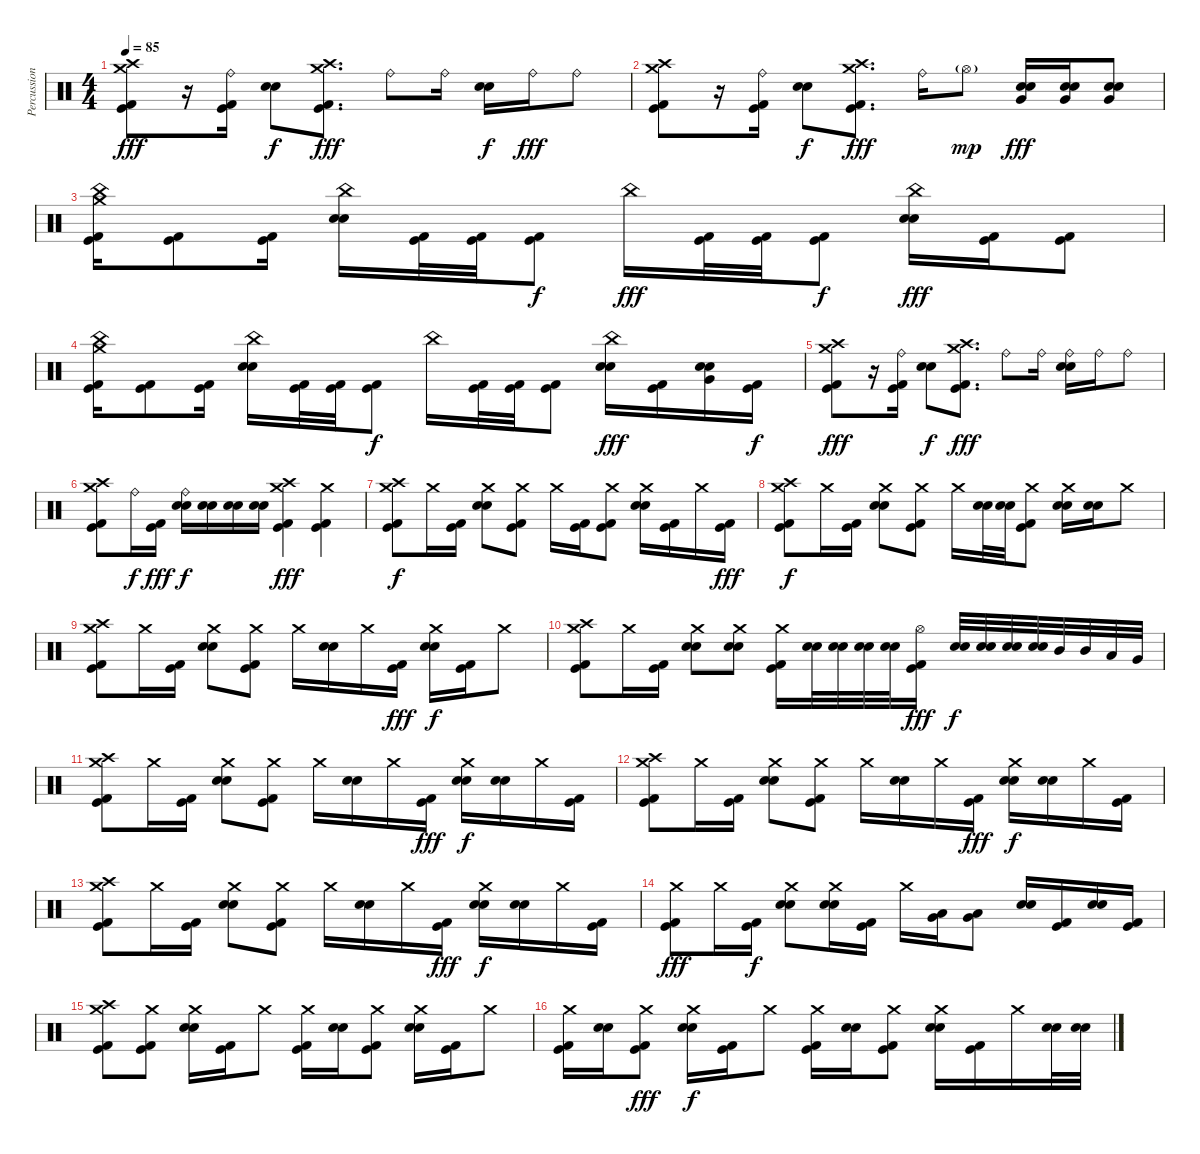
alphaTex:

\track ("Percussion" "Percussion") {instrument percussion}
\staff {score}
\articulation defaults
\ts (4 4)
\tempo 85
\clef neutral
\ks c
("Crash high (hit)" "Crash medium (hit)" "Kick (hit)" "Kick (hit) 2").8{dy fff} r.16 ("Ride (bell)" "Kick (hit)" "Kick (hit) 2").16 ("Electric Snare (hit)" "Snare (hit) 2").8{dy f} ("Crash medium (hit)" "Crash high (hit)" "Kick (hit)" "Kick (hit) 2").8{d dy fff} "Ride (bell)".8 "Ride (bell)".16 ("Electric Snare (hit)" "Snare (hit) 2").16{dy f} "Ride (bell)".16{dy fff} "Ride (bell)".8 |
("Crash high (hit)" "Crash medium (hit)" "Kick (hit)" "Kick (hit) 2").8 r.16 ("Ride (bell)" "Kick (hit)" "Kick (hit) 2").16 ("Electric Snare (hit)" "Snare (hit) 2").8{dy f} ("Crash medium (hit)" "Crash high (hit)" "Kick (hit)" "Kick (hit) 2").8{d dy fff} "Ride (bell)".16 "Hi-Hat (open)"{g}.8{dy mp} ("Electric Snare (hit)" "Snare (hit) 2" "Very Low Tom (hit)").16{dy fff} ("Electric Snare (hit)" "Snare (hit) 2" "Very Low Tom (hit)").16 ("Electric Snare (hit)" "Snare (hit) 2" "Very Low Tom (hit)").8 |
("Crash medium (hit)" "China (hit)" "Kick (hit)" "Kick (hit) 2").16 ("Kick (hit)" "Kick (hit) 2").8 ("Kick (hit)" "Kick (hit) 2").16 ("China (hit)" "Electric Snare (hit)" "Snare (hit) 2").16 ("Kick (hit)" "Kick (hit) 2").32 ("Kick (hit)" "Kick (hit) 2").32 ("Kick (hit)" "Kick (hit) 2").8{dy f} "China (hit)".16{dy fff} ("Kick (hit)" "Kick (hit) 2").32 ("Kick (hit)" "Kick (hit) 2").32 ("Kick (hit)" "Kick (hit) 2").8{dy f} ("China (hit)" "Electric Snare (hit)" "Snare (hit) 2").16{dy fff} ("Kick (hit)" "Kick (hit) 2").16 ("Kick (hit)" "Kick (hit) 2").8 |
("Crash medium (hit)" "China (hit)" "Kick (hit)" "Kick (hit) 2").16 ("Kick (hit)" "Kick (hit) 2").8 ("Kick (hit)" "Kick (hit) 2").16 ("China (hit)" "Electric Snare (hit)" "Snare (hit) 2").16 ("Kick (hit)" "Kick (hit) 2").32 ("Kick (hit)" "Kick (hit) 2").32 ("Kick (hit)" "Kick (hit) 2").8{dy f} "China (hit)".16 ("Kick (hit)" "Kick (hit) 2").32 ("Kick (hit)" "Kick (hit) 2").32 ("Kick (hit)" "Kick (hit) 2").8 ("China (hit)" "Electric Snare (hit)" "Snare (hit) 2").16{dy fff} ("Kick (hit)" "Kick (hit) 2").16 ("Very Low Tom (hit)" "Electric Snare (hit)" "Snare (hit) 2").16 ("Kick (hit)" "Kick (hit) 2").16{dy f} |
("Crash high (hit)" "Crash medium (hit)" "Kick (hit)" "Kick (hit) 2").8{dy fff} r.16 ("Ride (bell)" "Kick (hit)" "Kick (hit) 2").16 ("Electric Snare (hit)" "Snare (hit) 2").8{dy f} ("Crash medium (hit)" "Crash high (hit)" "Kick (hit)" "Kick (hit) 2").8{d dy fff} "Ride (bell)".8 "Ride (bell)".16 ("Ride (bell)" "Electric Snare (hit)" "Snare (hit) 2").16 "Ride (bell)".16 "Ride (bell)".8 |
("Crash high (hit)" "Crash medium (hit)" "Kick (hit)" "Kick (hit) 2").8 "Ride (bell)".16{dy f} ("Kick (hit)" "Kick (hit) 2").16{dy fff} ("Ride (bell)" "Electric Snare (hit)" "Snare (hit) 2").16{dy f} ("Electric Snare (hit)" "Snare (hit) 2").16 ("Electric Snare (hit)" "Snare (hit) 2").16 ("Electric Snare (hit)" "Snare (hit) 2").16 ("Crash medium (hit)" "Crash high (hit)" "Kick (hit)" "Kick (hit) 2").4{dy fff} ("Crash medium (hit)" "Kick (hit)" "Kick (hit) 2").4 |
("Crash high (hit)" "Crash medium (hit)" "Kick (hit)" "Kick (hit) 2").8{dy f} "Crash medium (hit)".16 ("Kick (hit)" "Kick (hit) 2").16 ("Crash medium (hit)" "Electric Snare (hit)" "Snare (hit) 2").8 ("Crash medium (hit)" "Kick (hit)" "Kick (hit) 2").8 "Crash medium (hit)".16 ("Kick (hit)" "Kick (hit) 2").16 ("Crash medium (hit)" "Kick (hit)" "Kick (hit) 2").8 ("Crash medium (hit)" "Electric Snare (hit)" "Snare (hit) 2").16 ("Kick (hit)" "Kick (hit) 2").16 "Crash medium (hit)".16 ("Kick (hit)" "Kick (hit) 2").16{dy fff} |
("Crash high (hit)" "Crash medium (hit)" "Kick (hit)" "Kick (hit) 2").8{dy f} "Crash medium (hit)".16 ("Kick (hit)" "Kick (hit) 2").16 ("Crash medium (hit)" "Electric Snare (hit)" "Snare (hit) 2").8 ("Crash medium (hit)" "Kick (hit)" "Kick (hit) 2").8 "Crash medium (hit)".16 ("Electric Snare (hit)" "Snare (hit) 2").32 ("Electric Snare (hit)" "Snare (hit) 2").32 ("Crash medium (hit)" "Kick (hit)" "Kick (hit) 2").8 ("Crash medium (hit)" "Electric Snare (hit)" "Snare (hit) 2").16 ("Electric Snare (hit)" "Snare (hit) 2").16 "Crash medium (hit)".8 |
("Crash high (hit)" "Crash medium (hit)" "Kick (hit)" "Kick (hit) 2").8 "Crash medium (hit)".16 ("Kick (hit)" "Kick (hit) 2").16 ("Crash medium (hit)" "Electric Snare (hit)" "Snare (hit) 2").8 ("Crash medium (hit)" "Kick (hit)" "Kick (hit) 2").8 "Crash medium (hit)".16 ("Electric Snare (hit)" "Snare (hit) 2").16 "Crash medium (hit)".16 ("Kick (hit)" "Kick (hit) 2").16{dy fff} ("Crash medium (hit)" "Electric Snare (hit)" "Snare (hit) 2").16{dy f} ("Kick (hit)" "Kick (hit) 2").16 "Crash medium (hit)".8 |
("Crash high (hit)" "Crash medium (hit)" "Kick (hit)" "Kick (hit) 2").8 "Crash medium (hit)".16 ("Kick (hit)" "Kick (hit) 2").16 ("Crash medium (hit)" "Electric Snare (hit)" "Snare (hit) 2").8 ("Crash medium (hit)" "Electric Snare (hit)" "Snare (hit) 2").8 ("Crash medium (hit)" "Kick (hit)" "Kick (hit) 2").16 ("Electric Snare (hit)" "Snare (hit) 2").32 ("Electric Snare (hit)" "Snare (hit) 2").32 ("Electric Snare (hit)" "Snare (hit) 2").32 ("Electric Snare (hit)" "Snare (hit) 2").32 ("Hi-Hat (open)" "Kick (hit)" "Kick (hit) 2").16{dy fff} ("Electric Snare (hit)" "Snare (hit) 2").32{dy f} ("Electric Snare (hit)" "Snare (hit) 2").32 ("Electric Snare (hit)" "Snare (hit) 2").32 ("Electric Snare (hit)" "Snare (hit) 2").32 "Mid Tom (hit)".32 "Mid Tom (hit)".32 "Low Tom (hit)".32 "Very Low Tom (hit)".32 |
("Crash high (hit)" "Crash medium (hit)" "Kick (hit)" "Kick (hit) 2").8 "Crash medium (hit)".16 ("Kick (hit)" "Kick (hit) 2").16 ("Crash medium (hit)" "Electric Snare (hit)" "Snare (hit) 2").8 ("Crash medium (hit)" "Kick (hit)" "Kick (hit) 2").8 "Crash medium (hit)".16 ("Electric Snare (hit)" "Snare (hit) 2").16 "Crash medium (hit)".16 ("Kick (hit)" "Kick (hit) 2").16{dy fff} ("Crash medium (hit)" "Electric Snare (hit)" "Snare (hit) 2").16{dy f} ("Electric Snare (hit)" "Snare (hit) 2").16 "Crash medium (hit)".16 ("Kick (hit)" "Kick (hit) 2").16 |
("Crash high (hit)" "Crash medium (hit)" "Kick (hit)" "Kick (hit) 2").8 "Crash medium (hit)".16 ("Kick (hit)" "Kick (hit) 2").16 ("Crash medium (hit)" "Electric Snare (hit)" "Snare (hit) 2").8 ("Crash medium (hit)" "Kick (hit)" "Kick (hit) 2").8 "Crash medium (hit)".16 ("Electric Snare (hit)" "Snare (hit) 2").16 "Crash medium (hit)".16 ("Kick (hit)" "Kick (hit) 2").16{dy fff} ("Crash medium (hit)" "Electric Snare (hit)" "Snare (hit) 2").16{dy f} ("Electric Snare (hit)" "Snare (hit) 2").16 "Crash medium (hit)".16 ("Kick (hit)" "Kick (hit) 2").16 |
("Crash high (hit)" "Crash medium (hit)" "Kick (hit)" "Kick (hit) 2").8 "Crash medium (hit)".16 ("Kick (hit)" "Kick (hit) 2").16 ("Crash medium (hit)" "Electric Snare (hit)" "Snare (hit) 2").8 ("Crash medium (hit)" "Kick (hit)" "Kick (hit) 2").8 "Crash medium (hit)".16 ("Electric Snare (hit)" "Snare (hit) 2").16 "Crash medium (hit)".16 ("Kick (hit)" "Kick (hit) 2").16{dy fff} ("Crash medium (hit)" "Electric Snare (hit)" "Snare (hit) 2").16{dy f} ("Electric Snare (hit)" "Snare (hit) 2").16 "Crash medium (hit)".16 ("Kick (hit)" "Kick (hit) 2").16 |
("Crash medium (hit)" "Kick (hit)" "Kick (hit) 2").8{dy fff} "Crash medium (hit)".16 ("Kick (hit)" "Kick (hit) 2").16{dy f} ("Crash medium (hit)" "Electric Snare (hit)" "Snare (hit) 2").8 ("Crash medium (hit)" "Electric Snare (hit)" "Snare (hit) 2").16 ("Kick (hit)" "Kick (hit) 2").16 "Crash medium (hit)".16 ("Low Tom (hit)" "Very Low Tom (hit)").16 ("Very Low Tom (hit)" "Low Floor Tom (hit)").8 ("Electric Snare (hit)" "Snare (hit) 2").16 ("Kick (hit)" "Kick (hit) 2").16 ("Electric Snare (hit)" "Snare (hit) 2").16 ("Kick (hit)" "Kick (hit) 2").16 |
("Crash medium (hit)" "Crash high (hit)" "Kick (hit)" "Kick (hit) 2").8 ("Crash medium (hit)" "Kick (hit)" "Kick (hit) 2").8 ("Crash medium (hit)" "Electric Snare (hit)" "Snare (hit) 2").16 ("Kick (hit)" "Kick (hit) 2").16 "Crash medium (hit)".8 ("Crash medium (hit)" "Kick (hit)" "Kick (hit) 2").16 ("Electric Snare (hit)" "Snare (hit) 2").16 ("Crash medium (hit)" "Kick (hit)" "Kick (hit) 2").8 ("Crash medium (hit)" "Electric Snare (hit)" "Snare (hit) 2").16 ("Kick (hit)" "Kick (hit) 2").16 "Crash medium (hit)".8 |
("Crash medium (hit)" "Kick (hit)" "Kick (hit) 2").16 ("Electric Snare (hit)" "Snare (hit) 2").16 ("Crash medium (hit)" "Kick (hit)" "Kick (hit) 2").8{dy fff} ("Crash medium (hit)" "Electric Snare (hit)" "Snare (hit) 2").16{dy f} ("Kick (hit)" "Kick (hit) 2").16 "Crash medium (hit)".8 ("Crash medium (hit)" "Kick (hit)" "Kick (hit) 2").16 ("Electric Snare (hit)" "Snare (hit) 2").16 ("Crash medium (hit)" "Kick (hit)" "Kick (hit) 2").8 ("Crash medium (hit)" "Electric Snare (hit)" "Snare (hit) 2").16 ("Kick (hit)" "Kick (hit) 2").16 "Crash medium (hit)".16 ("Electric Snare (hit)" "Snare (hit) 2").32 ("Electric Snare (hit)" "Snare (hit) 2").32
